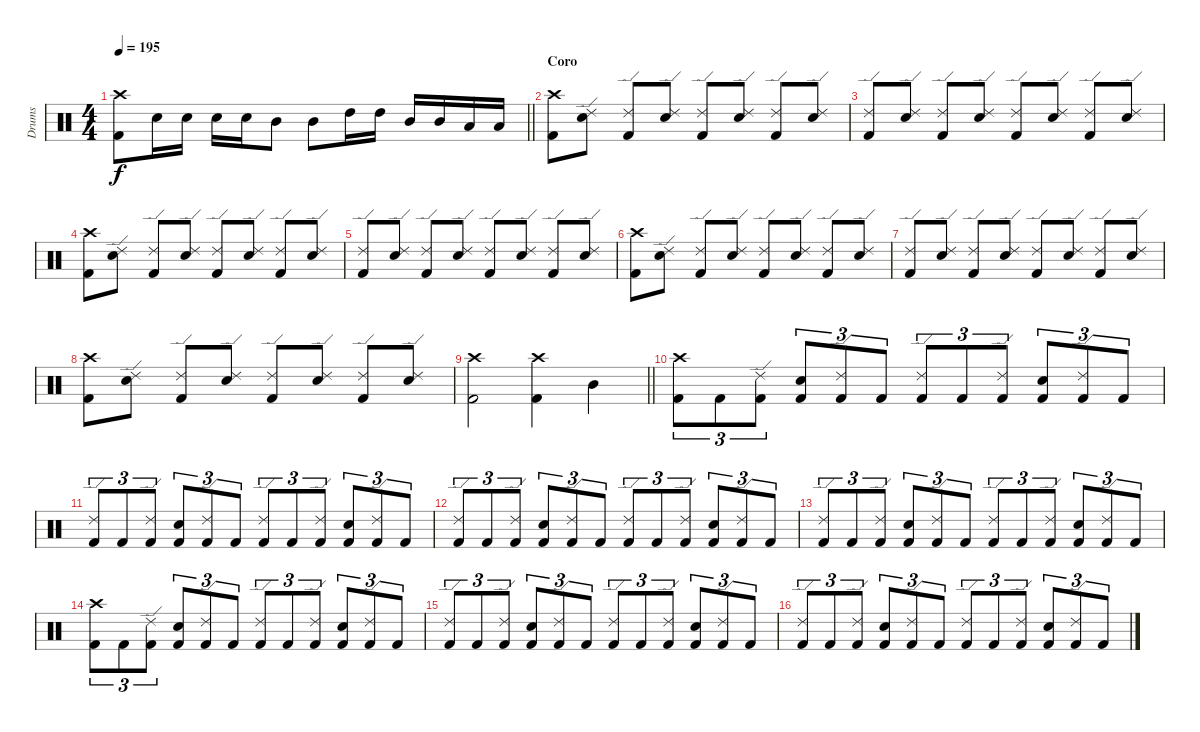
\track ("Drums" "Drums") {instrument percussion}
\staff {score}
\articulation defaults
\ts (4 4)
\tempo 195
\clef neutral
\barLineRight lightlight
\ks c
("Crash high (hit)" "Kick (hit) 2").8{dy f} "Snare (hit) 2".16 "Snare (hit) 2".16 "Snare (hit) 2".16 "Snare (hit) 2".16 "Mid Tom (hit)".8 "Mid Tom (hit)".8 "High Tom (hit)".16 "High Tom (hit)".16 "Mid Tom (hit)".16 "Mid Tom (hit)".16 "Low Tom (hit)".16 "Low Tom (hit)".16 |
\section ("" "Coro")
("Crash high (hit)" "Kick (hit) 2").8 ("Ride (edge) 2" "Snare (hit) 2").8 ("Ride (edge) 2" "Kick (hit) 2").8 ("Ride (edge) 2" "Snare (hit) 2").8 ("Ride (edge) 2" "Kick (hit) 2").8 ("Ride (edge) 2" "Snare (hit) 2").8 ("Ride (edge) 2" "Kick (hit) 2").8 ("Ride (edge) 2" "Snare (hit) 2").8 |
("Ride (edge) 2" "Kick (hit) 2").8 ("Ride (edge) 2" "Snare (hit) 2").8 ("Ride (edge) 2" "Kick (hit) 2").8 ("Ride (edge) 2" "Snare (hit) 2").8 ("Ride (edge) 2" "Kick (hit) 2").8 ("Ride (edge) 2" "Snare (hit) 2").8 ("Ride (edge) 2" "Kick (hit) 2").8 ("Ride (edge) 2" "Snare (hit) 2").8 |
("Crash high (hit)" "Kick (hit) 2").8 ("Ride (edge) 2" "Snare (hit) 2").8 ("Ride (edge) 2" "Kick (hit) 2").8 ("Ride (edge) 2" "Snare (hit) 2").8 ("Ride (edge) 2" "Kick (hit) 2").8 ("Ride (edge) 2" "Snare (hit) 2").8 ("Ride (edge) 2" "Kick (hit) 2").8 ("Ride (edge) 2" "Snare (hit) 2").8 |
("Ride (edge) 2" "Kick (hit) 2").8 ("Ride (edge) 2" "Snare (hit) 2").8 ("Ride (edge) 2" "Kick (hit) 2").8 ("Ride (edge) 2" "Snare (hit) 2").8 ("Ride (edge) 2" "Kick (hit) 2").8 ("Ride (edge) 2" "Snare (hit) 2").8 ("Ride (edge) 2" "Kick (hit) 2").8 ("Ride (edge) 2" "Snare (hit) 2").8 |
("Crash high (hit)" "Kick (hit) 2").8 ("Ride (edge) 2" "Snare (hit) 2").8 ("Ride (edge) 2" "Kick (hit) 2").8 ("Ride (edge) 2" "Snare (hit) 2").8 ("Ride (edge) 2" "Kick (hit) 2").8 ("Ride (edge) 2" "Snare (hit) 2").8 ("Ride (edge) 2" "Kick (hit) 2").8 ("Ride (edge) 2" "Snare (hit) 2").8 |
("Ride (edge) 2" "Kick (hit) 2").8 ("Ride (edge) 2" "Snare (hit) 2").8 ("Ride (edge) 2" "Kick (hit) 2").8 ("Ride (edge) 2" "Snare (hit) 2").8 ("Ride (edge) 2" "Kick (hit) 2").8 ("Ride (edge) 2" "Snare (hit) 2").8 ("Ride (edge) 2" "Kick (hit) 2").8 ("Ride (edge) 2" "Snare (hit) 2").8 |
("Crash high (hit)" "Kick (hit) 2").8 ("Ride (edge) 2" "Snare (hit) 2").8 ("Ride (edge) 2" "Kick (hit) 2").8 ("Ride (edge) 2" "Snare (hit) 2").8 ("Ride (edge) 2" "Kick (hit) 2").8 ("Ride (edge) 2" "Snare (hit) 2").8 ("Ride (edge) 2" "Kick (hit) 2").8 ("Ride (edge) 2" "Snare (hit) 2").8 |
\barLineRight lightlight
("Crash high (hit)" "Kick (hit) 2").2 ("Crash high (hit)" "Kick (hit) 2").4 "Mid Tom (hit)".4 |
("Crash high (hit)" "Kick (hit) 2").8{tu (3 2)} "Kick (hit) 2".8{tu (3 2)} ("Ride (edge) 2" "Kick (hit) 2").8{tu (3 2)} ("Snare (hit) 2" "Kick (hit) 2").8{tu (3 2)} ("Ride (edge) 2" "Kick (hit) 2").8{tu (3 2)} "Kick (hit) 2".8{tu (3 2)} ("Ride (edge) 2" "Kick (hit) 2").8{tu (3 2)} "Kick (hit) 2".8{tu (3 2)} ("Ride (edge) 2" "Kick (hit) 2").8{tu (3 2)} ("Snare (hit) 2" "Kick (hit) 2").8{tu (3 2)} ("Ride (edge) 2" "Kick (hit) 2").8{tu (3 2)} "Kick (hit) 2".8{tu (3 2)} |
("Ride (edge) 2" "Kick (hit) 2").8{tu (3 2)} "Kick (hit) 2".8{tu (3 2)} ("Ride (edge) 2" "Kick (hit) 2").8{tu (3 2)} ("Snare (hit) 2" "Kick (hit) 2").8{tu (3 2)} ("Ride (edge) 2" "Kick (hit) 2").8{tu (3 2)} "Kick (hit) 2".8{tu (3 2)} ("Ride (edge) 2" "Kick (hit) 2").8{tu (3 2)} "Kick (hit) 2".8{tu (3 2)} ("Ride (edge) 2" "Kick (hit) 2").8{tu (3 2)} ("Snare (hit) 2" "Kick (hit) 2").8{tu (3 2)} ("Ride (edge) 2" "Kick (hit) 2").8{tu (3 2)} "Kick (hit) 2".8{tu (3 2)} |
("Ride (edge) 2" "Kick (hit) 2").8{tu (3 2)} "Kick (hit) 2".8{tu (3 2)} ("Ride (edge) 2" "Kick (hit) 2").8{tu (3 2)} ("Snare (hit) 2" "Kick (hit) 2").8{tu (3 2)} ("Ride (edge) 2" "Kick (hit) 2").8{tu (3 2)} "Kick (hit) 2".8{tu (3 2)} ("Ride (edge) 2" "Kick (hit) 2").8{tu (3 2)} "Kick (hit) 2".8{tu (3 2)} ("Ride (edge) 2" "Kick (hit) 2").8{tu (3 2)} ("Snare (hit) 2" "Kick (hit) 2").8{tu (3 2)} ("Ride (edge) 2" "Kick (hit) 2").8{tu (3 2)} "Kick (hit) 2".8{tu (3 2)} |
("Ride (edge) 2" "Kick (hit) 2").8{tu (3 2)} "Kick (hit) 2".8{tu (3 2)} ("Ride (edge) 2" "Kick (hit) 2").8{tu (3 2)} ("Snare (hit) 2" "Kick (hit) 2").8{tu (3 2)} ("Ride (edge) 2" "Kick (hit) 2").8{tu (3 2)} "Kick (hit) 2".8{tu (3 2)} ("Ride (edge) 2" "Kick (hit) 2").8{tu (3 2)} "Kick (hit) 2".8{tu (3 2)} ("Ride (edge) 2" "Kick (hit) 2").8{tu (3 2)} ("Snare (hit) 2" "Kick (hit) 2").8{tu (3 2)} ("Ride (edge) 2" "Kick (hit) 2").8{tu (3 2)} "Kick (hit) 2".8{tu (3 2)} |
("Crash high (hit)" "Kick (hit) 2").8{tu (3 2)} "Kick (hit) 2".8{tu (3 2)} ("Ride (edge) 2" "Kick (hit) 2").8{tu (3 2)} ("Snare (hit) 2" "Kick (hit) 2").8{tu (3 2)} ("Ride (edge) 2" "Kick (hit) 2").8{tu (3 2)} "Kick (hit) 2".8{tu (3 2)} ("Ride (edge) 2" "Kick (hit) 2").8{tu (3 2)} "Kick (hit) 2".8{tu (3 2)} ("Ride (edge) 2" "Kick (hit) 2").8{tu (3 2)} ("Snare (hit) 2" "Kick (hit) 2").8{tu (3 2)} ("Ride (edge) 2" "Kick (hit) 2").8{tu (3 2)} "Kick (hit) 2".8{tu (3 2)} |
("Ride (edge) 2" "Kick (hit) 2").8{tu (3 2)} "Kick (hit) 2".8{tu (3 2)} ("Ride (edge) 2" "Kick (hit) 2").8{tu (3 2)} ("Snare (hit) 2" "Kick (hit) 2").8{tu (3 2)} ("Ride (edge) 2" "Kick (hit) 2").8{tu (3 2)} "Kick (hit) 2".8{tu (3 2)} ("Ride (edge) 2" "Kick (hit) 2").8{tu (3 2)} "Kick (hit) 2".8{tu (3 2)} ("Ride (edge) 2" "Kick (hit) 2").8{tu (3 2)} ("Snare (hit) 2" "Kick (hit) 2").8{tu (3 2)} ("Ride (edge) 2" "Kick (hit) 2").8{tu (3 2)} "Kick (hit) 2".8{tu (3 2)} |
("Ride (edge) 2" "Kick (hit) 2").8{tu (3 2)} "Kick (hit) 2".8{tu (3 2)} ("Ride (edge) 2" "Kick (hit) 2").8{tu (3 2)} ("Snare (hit) 2" "Kick (hit) 2").8{tu (3 2)} ("Ride (edge) 2" "Kick (hit) 2").8{tu (3 2)} "Kick (hit) 2".8{tu (3 2)} ("Ride (edge) 2" "Kick (hit) 2").8{tu (3 2)} "Kick (hit) 2".8{tu (3 2)} ("Ride (edge) 2" "Kick (hit) 2").8{tu (3 2)} ("Snare (hit) 2" "Kick (hit) 2").8{tu (3 2)} ("Ride (edge) 2" "Kick (hit) 2").8{tu (3 2)} "Kick (hit) 2".8{tu (3 2)}
